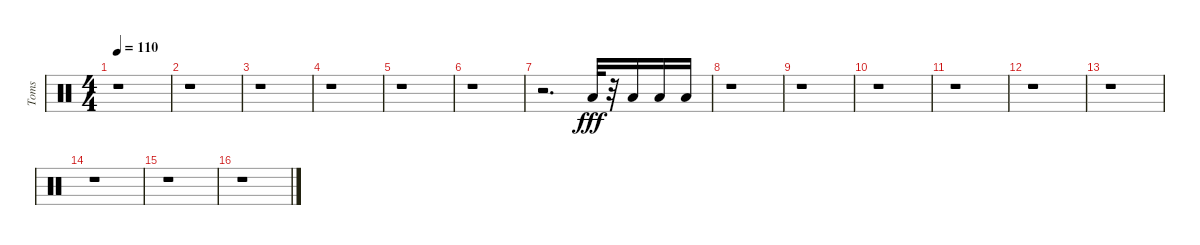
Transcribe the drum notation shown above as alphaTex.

\track ("Toms" "Toms") {instrument percussion}
\staff {score}
\articulation defaults
\ts (4 4)
\tempo 110
\clef neutral
\ks c
r.1{dy fff} |
r.1 |
r.1 |
r.1 |
r.1 |
r.1 |
r.2{d} "Low Tom (hit)".32 r.32 "Low Tom (hit)".16 "Low Floor Tom (hit)".16 "Low Floor Tom (hit)".16 |
r.1 |
r.1 |
r.1 |
r.1 |
r.1 |
r.1 |
r.1 |
r.1 |
r.1
